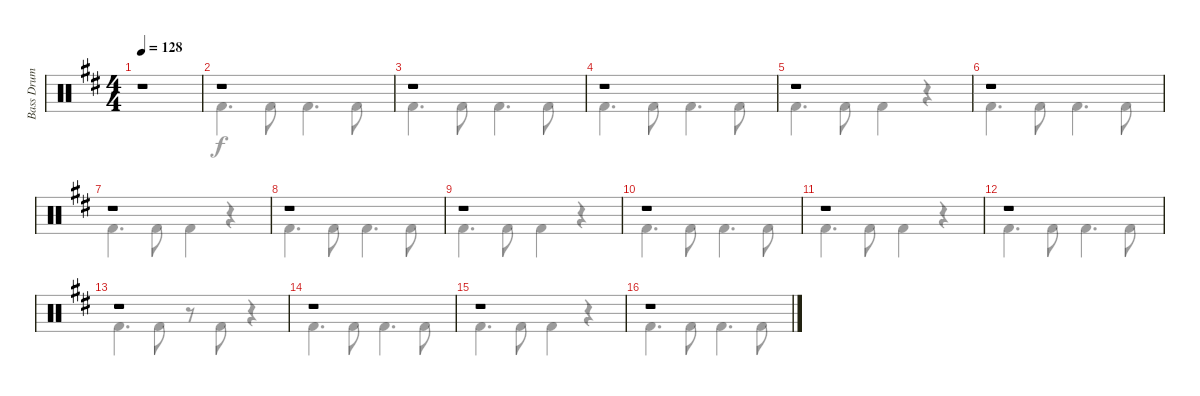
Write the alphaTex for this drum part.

\track ("Bass Drum" "Bass Drum") {instrument percussion}
\staff {score}
\articulation defaults
\voice
\ts (4 4)
\tempo 128
\clef neutral
\ks bminor
r.1{dy f} |
r.1 |
r.1 |
r.1 |
r.1 |
r.1 |
r.1 |
r.1 |
r.1 |
r.1 |
r.1 |
r.1 |
r.1 |
r.1 |
r.1 |
r.1
\voice
\clef neutral
\ottava regular
\simile none
\ks bminor
|
"Kick (hit) 2".4{d} "Kick (hit) 2".8 "Kick (hit) 2".4{d} "Kick (hit) 2".8 |
"Kick (hit) 2".4{d} "Kick (hit) 2".8 "Kick (hit) 2".4{d} "Kick (hit) 2".8 |
"Kick (hit) 2".4{d} "Kick (hit) 2".8 "Kick (hit) 2".4{d} "Kick (hit) 2".8 |
"Kick (hit) 2".4{d} "Kick (hit) 2".8 "Kick (hit) 2".4 r.4 |
"Kick (hit) 2".4{d} "Kick (hit) 2".8 "Kick (hit) 2".4{d} "Kick (hit) 2".8 |
"Kick (hit) 2".4{d} "Kick (hit) 2".8 "Kick (hit) 2".4 r.4 |
"Kick (hit) 2".4{d} "Kick (hit) 2".8 "Kick (hit) 2".4{d} "Kick (hit) 2".8 |
"Kick (hit) 2".4{d} "Kick (hit) 2".8 "Kick (hit) 2".4 r.4 |
"Kick (hit) 2".4{d} "Kick (hit) 2".8 "Kick (hit) 2".4{d} "Kick (hit) 2".8 |
"Kick (hit) 2".4{d} "Kick (hit) 2".8 "Kick (hit) 2".4 r.4 |
"Kick (hit) 2".4{d} "Kick (hit) 2".8 "Kick (hit) 2".4{d} "Kick (hit) 2".8 |
"Kick (hit) 2".4{d} "Kick (hit) 2".8 r.8 "Kick (hit) 2".8 r.4 |
"Kick (hit) 2".4{d} "Kick (hit) 2".8 "Kick (hit) 2".4{d} "Kick (hit) 2".8 |
"Kick (hit) 2".4{d} "Kick (hit) 2".8 "Kick (hit) 2".4 r.4 |
"Kick (hit) 2".4{d} "Kick (hit) 2".8 "Kick (hit) 2".4{d} "Kick (hit) 2".8
